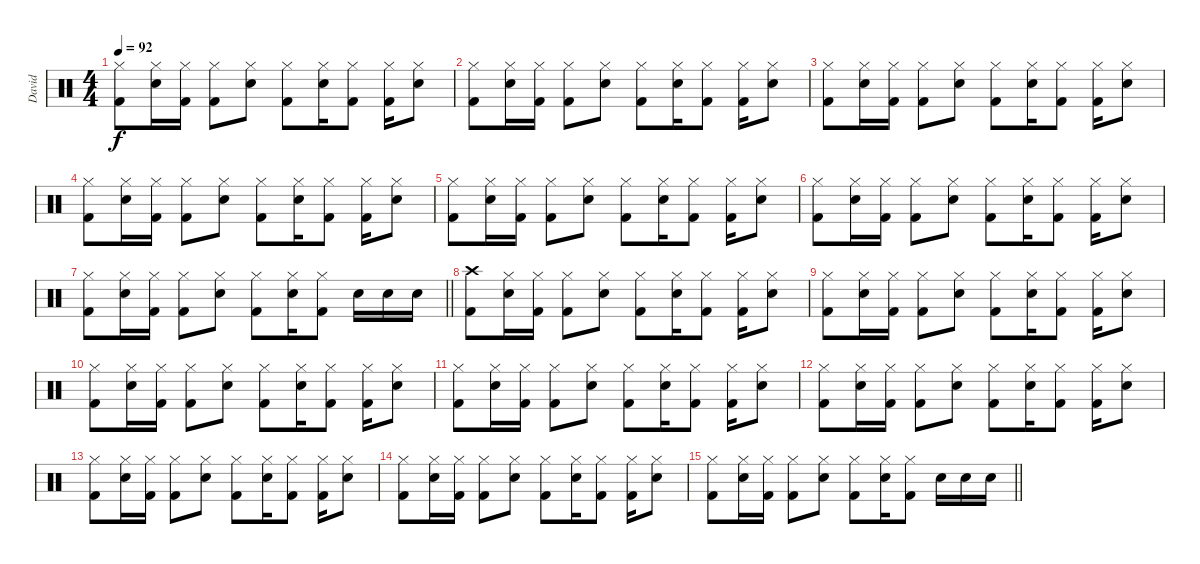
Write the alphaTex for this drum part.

\track ("David" "David") {instrument percussion}
\staff {score}
\articulation defaults
\ts (4 4)
\tempo 92
\clef neutral
\ks c
("Hi-Hat (closed)" "Kick (hit) 2").8{dy f} ("Hi-Hat (closed)" "Snare (hit) 2").16 ("Hi-Hat (closed)" "Kick (hit) 2").16 ("Hi-Hat (closed)" "Kick (hit) 2").8 ("Hi-Hat (closed)" "Snare (hit) 2").8 ("Hi-Hat (closed)" "Kick (hit) 2").8 ("Hi-Hat (closed)" "Snare (hit) 2").16 ("Hi-Hat (closed)" "Kick (hit) 2").8 ("Hi-Hat (closed)" "Kick (hit) 2").16 ("Hi-Hat (closed)" "Snare (hit) 2").8 |
("Hi-Hat (closed)" "Kick (hit) 2").8 ("Hi-Hat (closed)" "Snare (hit) 2").16 ("Hi-Hat (closed)" "Kick (hit) 2").16 ("Hi-Hat (closed)" "Kick (hit) 2").8 ("Hi-Hat (closed)" "Snare (hit) 2").8 ("Hi-Hat (closed)" "Kick (hit) 2").8 ("Hi-Hat (closed)" "Snare (hit) 2").16 ("Hi-Hat (closed)" "Kick (hit) 2").8 ("Hi-Hat (closed)" "Kick (hit) 2").16 ("Hi-Hat (closed)" "Snare (hit) 2").8 |
("Hi-Hat (closed)" "Kick (hit) 2").8 ("Hi-Hat (closed)" "Snare (hit) 2").16 ("Hi-Hat (closed)" "Kick (hit) 2").16 ("Hi-Hat (closed)" "Kick (hit) 2").8 ("Hi-Hat (closed)" "Snare (hit) 2").8 ("Hi-Hat (closed)" "Kick (hit) 2").8 ("Hi-Hat (closed)" "Snare (hit) 2").16 ("Hi-Hat (closed)" "Kick (hit) 2").8 ("Hi-Hat (closed)" "Kick (hit) 2").16 ("Hi-Hat (closed)" "Snare (hit) 2").8 |
("Hi-Hat (closed)" "Kick (hit) 2").8 ("Hi-Hat (closed)" "Snare (hit) 2").16 ("Hi-Hat (closed)" "Kick (hit) 2").16 ("Hi-Hat (closed)" "Kick (hit) 2").8 ("Hi-Hat (closed)" "Snare (hit) 2").8 ("Hi-Hat (closed)" "Kick (hit) 2").8 ("Hi-Hat (closed)" "Snare (hit) 2").16 ("Hi-Hat (closed)" "Kick (hit) 2").8 ("Hi-Hat (closed)" "Kick (hit) 2").16 ("Hi-Hat (closed)" "Snare (hit) 2").8 |
("Hi-Hat (closed)" "Kick (hit) 2").8 ("Hi-Hat (closed)" "Snare (hit) 2").16 ("Hi-Hat (closed)" "Kick (hit) 2").16 ("Hi-Hat (closed)" "Kick (hit) 2").8 ("Hi-Hat (closed)" "Snare (hit) 2").8 ("Hi-Hat (closed)" "Kick (hit) 2").8 ("Hi-Hat (closed)" "Snare (hit) 2").16 ("Hi-Hat (closed)" "Kick (hit) 2").8 ("Hi-Hat (closed)" "Kick (hit) 2").16 ("Hi-Hat (closed)" "Snare (hit) 2").8 |
("Hi-Hat (closed)" "Kick (hit) 2").8 ("Hi-Hat (closed)" "Snare (hit) 2").16 ("Hi-Hat (closed)" "Kick (hit) 2").16 ("Hi-Hat (closed)" "Kick (hit) 2").8 ("Hi-Hat (closed)" "Snare (hit) 2").8 ("Hi-Hat (closed)" "Kick (hit) 2").8 ("Hi-Hat (closed)" "Snare (hit) 2").16 ("Hi-Hat (closed)" "Kick (hit) 2").8 ("Hi-Hat (closed)" "Kick (hit) 2").16 ("Hi-Hat (closed)" "Snare (hit) 2").8 |
\barLineRight lightlight
("Hi-Hat (closed)" "Kick (hit) 2").8 ("Hi-Hat (closed)" "Snare (hit) 2").16 ("Hi-Hat (closed)" "Kick (hit) 2").16 ("Hi-Hat (closed)" "Kick (hit) 2").8 ("Hi-Hat (closed)" "Snare (hit) 2").8 ("Hi-Hat (closed)" "Kick (hit) 2").8 ("Hi-Hat (closed)" "Snare (hit) 2").16 ("Hi-Hat (closed)" "Kick (hit) 2").8 "Snare (hit) 2".16 "Snare (hit) 2".16 "Snare (hit) 2".16 |
("Crash high (hit)" "Kick (hit) 2").8 ("Hi-Hat (closed)" "Snare (hit) 2").16 ("Hi-Hat (closed)" "Kick (hit) 2").16 ("Hi-Hat (closed)" "Kick (hit) 2").8 ("Hi-Hat (closed)" "Snare (hit) 2").8 ("Hi-Hat (closed)" "Kick (hit) 2").8 ("Hi-Hat (closed)" "Snare (hit) 2").16 ("Hi-Hat (closed)" "Kick (hit) 2").8 ("Hi-Hat (closed)" "Kick (hit) 2").16 ("Hi-Hat (closed)" "Snare (hit) 2").8 |
("Hi-Hat (closed)" "Kick (hit) 2").8 ("Hi-Hat (closed)" "Snare (hit) 2").16 ("Hi-Hat (closed)" "Kick (hit) 2").16 ("Hi-Hat (closed)" "Kick (hit) 2").8 ("Hi-Hat (closed)" "Snare (hit) 2").8 ("Hi-Hat (closed)" "Kick (hit) 2").8 ("Hi-Hat (closed)" "Snare (hit) 2").16 ("Hi-Hat (closed)" "Kick (hit) 2").8 ("Hi-Hat (closed)" "Kick (hit) 2").16 ("Hi-Hat (closed)" "Snare (hit) 2").8 |
("Hi-Hat (closed)" "Kick (hit) 2").8 ("Hi-Hat (closed)" "Snare (hit) 2").16 ("Hi-Hat (closed)" "Kick (hit) 2").16 ("Hi-Hat (closed)" "Kick (hit) 2").8 ("Hi-Hat (closed)" "Snare (hit) 2").8 ("Hi-Hat (closed)" "Kick (hit) 2").8 ("Hi-Hat (closed)" "Snare (hit) 2").16 ("Hi-Hat (closed)" "Kick (hit) 2").8 ("Hi-Hat (closed)" "Kick (hit) 2").16 ("Hi-Hat (closed)" "Snare (hit) 2").8 |
("Hi-Hat (closed)" "Kick (hit) 2").8 ("Hi-Hat (closed)" "Snare (hit) 2").16 ("Hi-Hat (closed)" "Kick (hit) 2").16 ("Hi-Hat (closed)" "Kick (hit) 2").8 ("Hi-Hat (closed)" "Snare (hit) 2").8 ("Hi-Hat (closed)" "Kick (hit) 2").8 ("Hi-Hat (closed)" "Snare (hit) 2").16 ("Hi-Hat (closed)" "Kick (hit) 2").8 ("Hi-Hat (closed)" "Kick (hit) 2").16 ("Hi-Hat (closed)" "Snare (hit) 2").8 |
("Hi-Hat (closed)" "Kick (hit) 2").8 ("Hi-Hat (closed)" "Snare (hit) 2").16 ("Hi-Hat (closed)" "Kick (hit) 2").16 ("Hi-Hat (closed)" "Kick (hit) 2").8 ("Hi-Hat (closed)" "Snare (hit) 2").8 ("Hi-Hat (closed)" "Kick (hit) 2").8 ("Hi-Hat (closed)" "Snare (hit) 2").16 ("Hi-Hat (closed)" "Kick (hit) 2").8 ("Hi-Hat (closed)" "Kick (hit) 2").16 ("Hi-Hat (closed)" "Snare (hit) 2").8 |
("Hi-Hat (closed)" "Kick (hit) 2").8 ("Hi-Hat (closed)" "Snare (hit) 2").16 ("Hi-Hat (closed)" "Kick (hit) 2").16 ("Hi-Hat (closed)" "Kick (hit) 2").8 ("Hi-Hat (closed)" "Snare (hit) 2").8 ("Hi-Hat (closed)" "Kick (hit) 2").8 ("Hi-Hat (closed)" "Snare (hit) 2").16 ("Hi-Hat (closed)" "Kick (hit) 2").8 ("Hi-Hat (closed)" "Kick (hit) 2").16 ("Hi-Hat (closed)" "Snare (hit) 2").8 |
("Hi-Hat (closed)" "Kick (hit) 2").8 ("Hi-Hat (closed)" "Snare (hit) 2").16 ("Hi-Hat (closed)" "Kick (hit) 2").16 ("Hi-Hat (closed)" "Kick (hit) 2").8 ("Hi-Hat (closed)" "Snare (hit) 2").8 ("Hi-Hat (closed)" "Kick (hit) 2").8 ("Hi-Hat (closed)" "Snare (hit) 2").16 ("Hi-Hat (closed)" "Kick (hit) 2").8 ("Hi-Hat (closed)" "Kick (hit) 2").16 ("Hi-Hat (closed)" "Snare (hit) 2").8 |
\barLineRight lightlight
("Hi-Hat (closed)" "Kick (hit) 2").8 ("Hi-Hat (closed)" "Snare (hit) 2").16 ("Hi-Hat (closed)" "Kick (hit) 2").16 ("Hi-Hat (closed)" "Kick (hit) 2").8 ("Hi-Hat (closed)" "Snare (hit) 2").8 ("Hi-Hat (closed)" "Kick (hit) 2").8 ("Hi-Hat (closed)" "Snare (hit) 2").16 ("Hi-Hat (closed)" "Kick (hit) 2").8 "Snare (hit) 2".16 "Snare (hit) 2".16 "Snare (hit) 2".16
